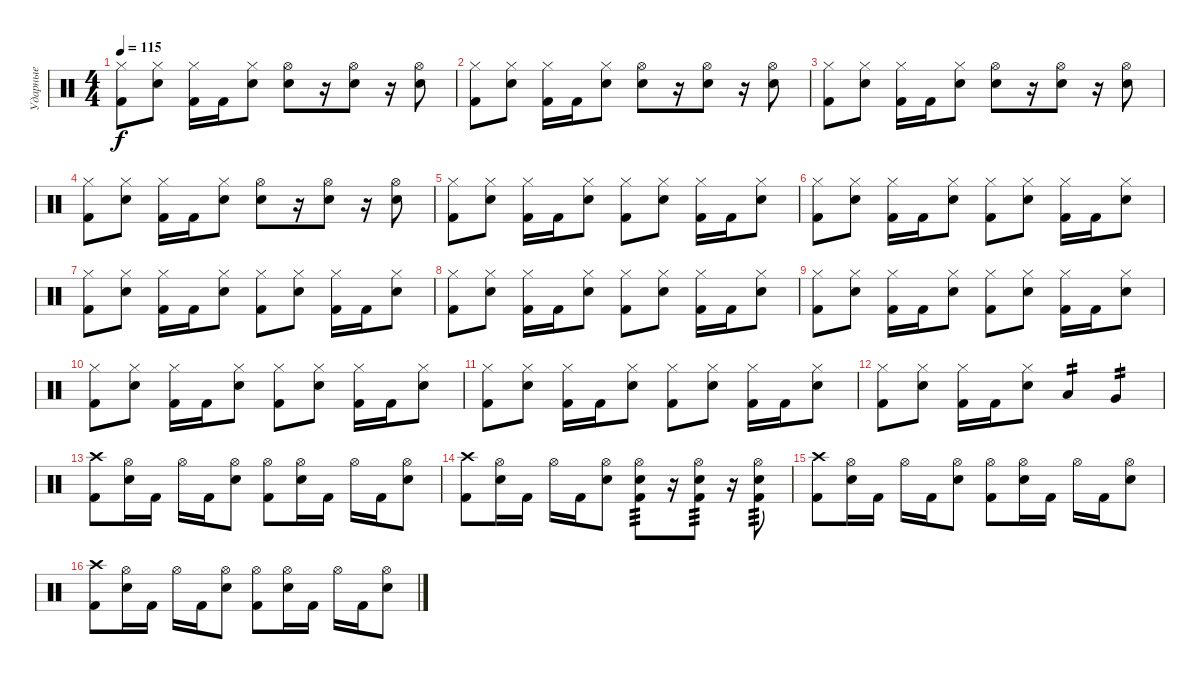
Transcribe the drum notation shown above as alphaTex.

\track ("Ударные" "Ударные") {instrument percussion}
\staff {score}
\articulation defaults
\ts (4 4)
\tempo 115
\clef neutral
\ks c
("Hi-Hat (closed)" "Kick (hit) 2").8{dy f} ("Hi-Hat (closed)" "Electric Snare (hit)").8 ("Hi-Hat (closed)" "Kick (hit) 2").16 "Kick (hit) 2".16 ("Hi-Hat (closed)" "Electric Snare (hit)").8 ("Hi-Hat (open)" "Electric Snare (hit)").8 r.16 ("Hi-Hat (open)" "Electric Snare (hit)").8 r.16 ("Hi-Hat (open)" "Electric Snare (hit)").8 |
("Hi-Hat (closed)" "Kick (hit) 2").8 ("Hi-Hat (closed)" "Electric Snare (hit)").8 ("Hi-Hat (closed)" "Kick (hit) 2").16 "Kick (hit) 2".16 ("Hi-Hat (closed)" "Electric Snare (hit)").8 ("Hi-Hat (open)" "Electric Snare (hit)").8 r.16 ("Hi-Hat (open)" "Electric Snare (hit)").8 r.16 ("Hi-Hat (open)" "Electric Snare (hit)").8 |
("Hi-Hat (closed)" "Kick (hit) 2").8 ("Hi-Hat (closed)" "Electric Snare (hit)").8 ("Hi-Hat (closed)" "Kick (hit) 2").16 "Kick (hit) 2".16 ("Hi-Hat (closed)" "Electric Snare (hit)").8 ("Hi-Hat (open)" "Electric Snare (hit)").8 r.16 ("Hi-Hat (open)" "Electric Snare (hit)").8 r.16 ("Hi-Hat (open)" "Electric Snare (hit)").8 |
("Hi-Hat (closed)" "Kick (hit) 2").8 ("Hi-Hat (closed)" "Electric Snare (hit)").8 ("Hi-Hat (closed)" "Kick (hit) 2").16 "Kick (hit) 2".16 ("Hi-Hat (closed)" "Electric Snare (hit)").8 ("Hi-Hat (open)" "Electric Snare (hit)").8 r.16 ("Hi-Hat (open)" "Electric Snare (hit)").8 r.16 ("Hi-Hat (open)" "Electric Snare (hit)").8 |
("Hi-Hat (closed)" "Kick (hit) 2").8 ("Hi-Hat (closed)" "Electric Snare (hit)").8 ("Hi-Hat (closed)" "Kick (hit) 2").16 "Kick (hit) 2".16 ("Hi-Hat (closed)" "Electric Snare (hit)").8 ("Hi-Hat (closed)" "Kick (hit) 2").8 ("Hi-Hat (closed)" "Electric Snare (hit)").8 ("Hi-Hat (closed)" "Kick (hit) 2").16 "Kick (hit) 2".16 ("Hi-Hat (closed)" "Electric Snare (hit)").8 |
("Hi-Hat (closed)" "Kick (hit) 2").8 ("Hi-Hat (closed)" "Electric Snare (hit)").8 ("Hi-Hat (closed)" "Kick (hit) 2").16 "Kick (hit) 2".16 ("Hi-Hat (closed)" "Electric Snare (hit)").8 ("Hi-Hat (closed)" "Kick (hit) 2").8 ("Hi-Hat (closed)" "Electric Snare (hit)").8 ("Hi-Hat (closed)" "Kick (hit) 2").16 "Kick (hit) 2".16 ("Hi-Hat (closed)" "Electric Snare (hit)").8 |
("Hi-Hat (closed)" "Kick (hit) 2").8 ("Hi-Hat (closed)" "Electric Snare (hit)").8 ("Hi-Hat (closed)" "Kick (hit) 2").16 "Kick (hit) 2".16 ("Hi-Hat (closed)" "Electric Snare (hit)").8 ("Hi-Hat (closed)" "Kick (hit) 2").8 ("Hi-Hat (closed)" "Electric Snare (hit)").8 ("Hi-Hat (closed)" "Kick (hit) 2").16 "Kick (hit) 2".16 ("Hi-Hat (closed)" "Electric Snare (hit)").8 |
("Hi-Hat (closed)" "Kick (hit) 2").8 ("Hi-Hat (closed)" "Electric Snare (hit)").8 ("Hi-Hat (closed)" "Kick (hit) 2").16 "Kick (hit) 2".16 ("Hi-Hat (closed)" "Electric Snare (hit)").8 ("Hi-Hat (closed)" "Kick (hit) 2").8 ("Hi-Hat (closed)" "Electric Snare (hit)").8 ("Hi-Hat (closed)" "Kick (hit) 2").16 "Kick (hit) 2".16 ("Hi-Hat (closed)" "Electric Snare (hit)").8 |
("Hi-Hat (closed)" "Kick (hit) 2").8 ("Hi-Hat (closed)" "Electric Snare (hit)").8 ("Hi-Hat (closed)" "Kick (hit) 2").16 "Kick (hit) 2".16 ("Hi-Hat (closed)" "Electric Snare (hit)").8 ("Hi-Hat (closed)" "Kick (hit) 2").8 ("Hi-Hat (closed)" "Electric Snare (hit)").8 ("Hi-Hat (closed)" "Kick (hit) 2").16 "Kick (hit) 2".16 ("Hi-Hat (closed)" "Electric Snare (hit)").8 |
("Hi-Hat (closed)" "Kick (hit) 2").8 ("Hi-Hat (closed)" "Electric Snare (hit)").8 ("Hi-Hat (closed)" "Kick (hit) 2").16 "Kick (hit) 2".16 ("Hi-Hat (closed)" "Electric Snare (hit)").8 ("Hi-Hat (closed)" "Kick (hit) 2").8 ("Hi-Hat (closed)" "Electric Snare (hit)").8 ("Hi-Hat (closed)" "Kick (hit) 2").16 "Kick (hit) 2".16 ("Hi-Hat (closed)" "Electric Snare (hit)").8 |
("Hi-Hat (closed)" "Kick (hit) 2").8 ("Hi-Hat (closed)" "Electric Snare (hit)").8 ("Hi-Hat (closed)" "Kick (hit) 2").16 "Kick (hit) 2".16 ("Hi-Hat (closed)" "Electric Snare (hit)").8 ("Hi-Hat (closed)" "Kick (hit) 2").8 ("Hi-Hat (closed)" "Electric Snare (hit)").8 ("Hi-Hat (closed)" "Kick (hit) 2").16 "Kick (hit) 2".16 ("Hi-Hat (closed)" "Electric Snare (hit)").8 |
("Hi-Hat (closed)" "Kick (hit) 2").8 ("Hi-Hat (closed)" "Electric Snare (hit)").8 ("Hi-Hat (closed)" "Kick (hit) 2").16 "Kick (hit) 2".16 ("Hi-Hat (closed)" "Electric Snare (hit)").8 "Low Floor Tom (hit)".4{tp 2} "Very Low Tom (hit)".4{tp 2} |
("Kick (hit) 2" "Crash high (hit)").8 ("Electric Snare (hit)" "Hi-Hat (open)").16 "Kick (hit) 2".16 "Hi-Hat (open)".16 "Kick (hit) 2".16 ("Electric Snare (hit)" "Hi-Hat (open)").8 ("Kick (hit) 2" "Hi-Hat (open)").8 ("Electric Snare (hit)" "Hi-Hat (open)").16 "Kick (hit) 2".16 "Hi-Hat (open)".16 "Kick (hit) 2".16 ("Electric Snare (hit)" "Hi-Hat (open)").8 |
("Kick (hit) 2" "Crash high (hit)").8 ("Electric Snare (hit)" "Hi-Hat (open)").16 "Kick (hit) 2".16 "Hi-Hat (open)".16 "Kick (hit) 2".16 ("Electric Snare (hit)" "Hi-Hat (open)").8 ("Hi-Hat (open)" "Electric Snare (hit)" "Kick (hit) 2").8{tp 3} r.16 ("Hi-Hat (open)" "Electric Snare (hit)" "Kick (hit) 2").8{tp 3} r.16 ("Hi-Hat (open)" "Electric Snare (hit)" "Kick (hit) 2").8{tp 3} |
("Kick (hit) 2" "Crash high (hit)").8 ("Electric Snare (hit)" "Hi-Hat (open)").16 "Kick (hit) 2".16 "Hi-Hat (open)".16 "Kick (hit) 2".16 ("Electric Snare (hit)" "Hi-Hat (open)").8 ("Kick (hit) 2" "Hi-Hat (open)").8 ("Electric Snare (hit)" "Hi-Hat (open)").16 "Kick (hit) 2".16 "Hi-Hat (open)".16 "Kick (hit) 2".16 ("Electric Snare (hit)" "Hi-Hat (open)").8 |
("Kick (hit) 2" "Crash high (hit)").8 ("Electric Snare (hit)" "Hi-Hat (open)").16 "Kick (hit) 2".16 "Hi-Hat (open)".16 "Kick (hit) 2".16 ("Electric Snare (hit)" "Hi-Hat (open)").8 ("Kick (hit) 2" "Hi-Hat (open)").8 ("Electric Snare (hit)" "Hi-Hat (open)").16 "Kick (hit) 2".16 "Hi-Hat (open)".16 "Kick (hit) 2".16 ("Electric Snare (hit)" "Hi-Hat (open)").8
